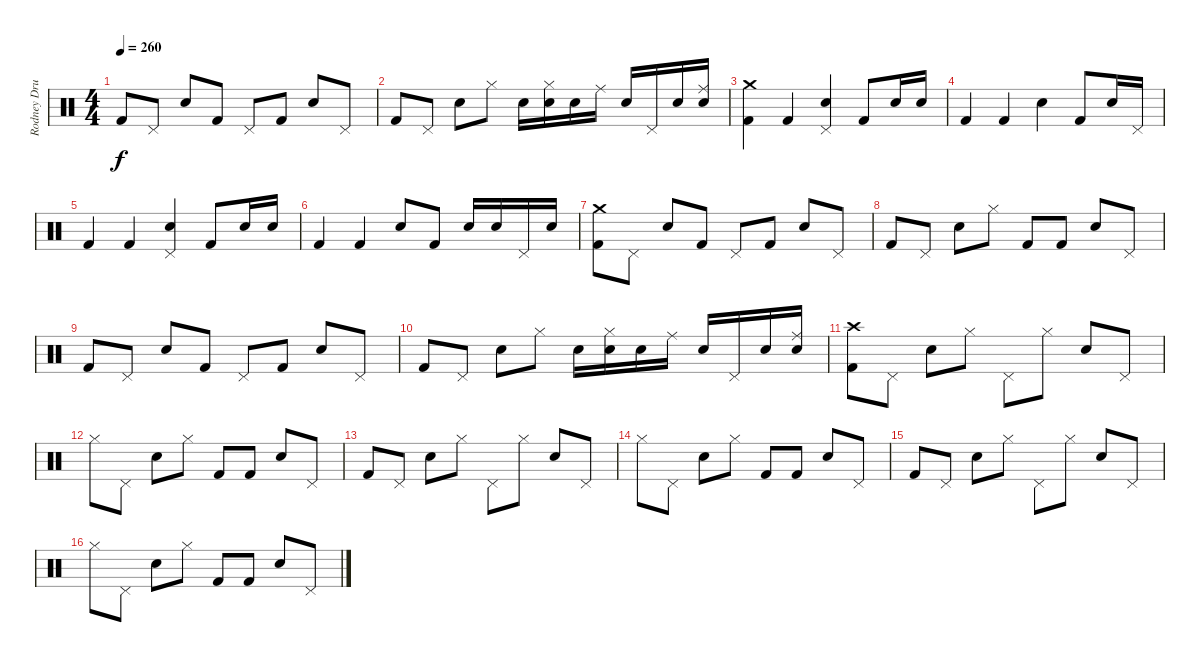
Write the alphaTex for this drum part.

\track ("Rodney Drums" "Rodney Dru") {instrument percussion}
\staff {score}
\articulation defaults
\ts (4 4)
\tempo 260
\clef neutral
\ks c "Kick (hit) 2".8{dy f} "Pedal Hi-Hat (hit)".8 "Electric Snare (hit)".8 "Kick (hit) 2".8 "Pedal Hi-Hat (hit)".8 "Kick (hit) 2".8 "Electric Snare (hit)".8 "Pedal Hi-Hat (hit)".8
|
"Kick (hit) 2".8 "Pedal Hi-Hat (hit)".8 "Electric Snare (hit)".8 "Hi-Hat (closed)".8 "Electric Snare (hit)".16 ("Hi-Hat (closed)" "Electric Snare (hit)").16 "Electric Snare (hit)".16 "Ride (middle)".16 "Electric Snare (hit)".16 "Pedal Hi-Hat (hit)".16 "Electric Snare (hit)".16 ("Electric Snare (hit)" "Ride (middle)").16 |
("Crash medium (hit)" "Kick (hit) 2").4 "Kick (hit) 2".4 ("Pedal Hi-Hat (hit)" "Electric Snare (hit)").4 "Kick (hit) 2".8 "Electric Snare (hit)".16 "Electric Snare (hit)".16 |
"Kick (hit) 2".4 "Kick (hit) 2".4 "Electric Snare (hit)".4 "Kick (hit) 2".8 "Electric Snare (hit)".16 "Pedal Hi-Hat (hit)".16 |
"Kick (hit) 2".4 "Kick (hit) 2".4 ("Pedal Hi-Hat (hit)" "Electric Snare (hit)").4 "Kick (hit) 2".8 "Electric Snare (hit)".16 "Electric Snare (hit)".16 |
"Kick (hit) 2".4 "Kick (hit) 2".4 "Electric Snare (hit)".8 "Kick (hit) 2".8 "Electric Snare (hit)".16 "Electric Snare (hit)".16 "Pedal Hi-Hat (hit)".16 "Electric Snare (hit)".16 |
("Crash medium (hit)" "Kick (hit) 2").8 "Pedal Hi-Hat (hit)".8 "Electric Snare (hit)".8 "Kick (hit) 2".8 "Pedal Hi-Hat (hit)".8 "Kick (hit) 2".8 "Electric Snare (hit)".8 "Pedal Hi-Hat (hit)".8 |
"Kick (hit) 2".8 "Pedal Hi-Hat (hit)".8 "Electric Snare (hit)".8 "Hi-Hat (closed)".8 "Kick (hit) 2".8 "Kick (hit) 2".8 "Electric Snare (hit)".8 "Pedal Hi-Hat (hit)".8 |
"Kick (hit) 2".8 "Pedal Hi-Hat (hit)".8 "Electric Snare (hit)".8 "Kick (hit) 2".8 "Pedal Hi-Hat (hit)".8 "Kick (hit) 2".8 "Electric Snare (hit)".8 "Pedal Hi-Hat (hit)".8 |
"Kick (hit) 2".8 "Pedal Hi-Hat (hit)".8 "Electric Snare (hit)".8 "Hi-Hat (closed)".8 "Electric Snare (hit)".16 ("Hi-Hat (closed)" "Electric Snare (hit)").16 "Electric Snare (hit)".16 "Ride (middle)".16 "Electric Snare (hit)".16 "Pedal Hi-Hat (hit)".16 "Electric Snare (hit)".16 ("Electric Snare (hit)" "Ride (middle)").16 |
("Crash high (hit)" "Kick (hit) 2").8 "Pedal Hi-Hat (hit)".8 "Electric Snare (hit)".8 "Hi-Hat (closed)".8 "Pedal Hi-Hat (hit)".8 "Hi-Hat (closed)".8 "Electric Snare (hit)".8 "Pedal Hi-Hat (hit)".8 |
"Hi-Hat (closed)".8 "Pedal Hi-Hat (hit)".8 "Electric Snare (hit)".8 "Hi-Hat (closed)".8 "Kick (hit) 2".8 "Kick (hit) 2".8 "Electric Snare (hit)".8 "Pedal Hi-Hat (hit)".8 |
"Kick (hit) 2".8 "Pedal Hi-Hat (hit)".8 "Electric Snare (hit)".8 "Hi-Hat (closed)".8 "Pedal Hi-Hat (hit)".8 "Hi-Hat (closed)".8 "Electric Snare (hit)".8 "Pedal Hi-Hat (hit)".8 |
"Hi-Hat (closed)".8 "Pedal Hi-Hat (hit)".8 "Electric Snare (hit)".8 "Hi-Hat (closed)".8 "Kick (hit) 2".8 "Kick (hit) 2".8 "Electric Snare (hit)".8 "Pedal Hi-Hat (hit)".8 |
"Kick (hit) 2".8 "Pedal Hi-Hat (hit)".8 "Electric Snare (hit)".8 "Hi-Hat (closed)".8 "Pedal Hi-Hat (hit)".8 "Hi-Hat (closed)".8 "Electric Snare (hit)".8 "Pedal Hi-Hat (hit)".8 |
"Hi-Hat (closed)".8 "Pedal Hi-Hat (hit)".8 "Electric Snare (hit)".8 "Hi-Hat (closed)".8 "Kick (hit) 2".8 "Kick (hit) 2".8 "Electric Snare (hit)".8 "Pedal Hi-Hat (hit)".8
